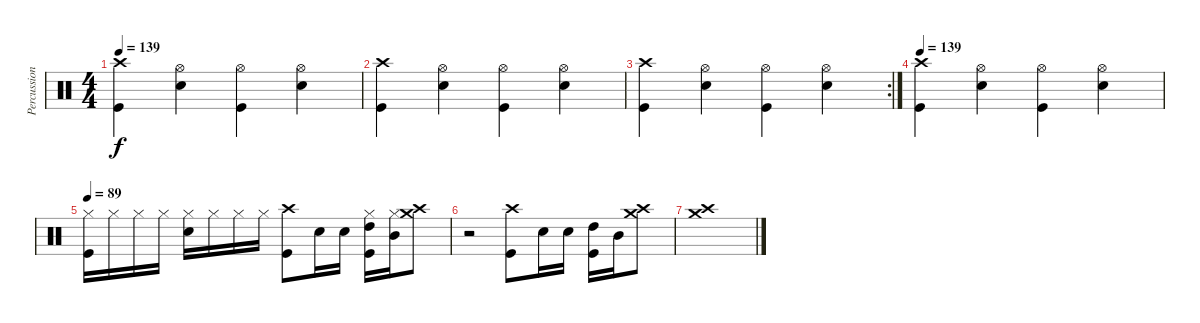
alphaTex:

\track ("Percussion" "Percussion") {instrument percussion}
\staff {score}
\articulation defaults
\ts (4 4)
\tempo 139
\clef neutral
\ks c
("Crash high (hit)" "Kick (hit)").4{dy f volume 15} ("Hi-Hat (open)" "Snare (hit) 2").4 ("Hi-Hat (open)" "Kick (hit)").4 ("Hi-Hat (open)" "Snare (hit) 2").4 |
("Crash high (hit)" "Kick (hit)").4{volume 15} ("Hi-Hat (open)" "Snare (hit) 2").4 ("Hi-Hat (open)" "Kick (hit)").4 ("Hi-Hat (open)" "Snare (hit) 2").4 |
\rc 2
("Crash high (hit)" "Kick (hit)").4{volume 15} ("Hi-Hat (open)" "Snare (hit) 2").4 ("Hi-Hat (open)" "Kick (hit)").4 ("Hi-Hat (open)" "Snare (hit) 2").4 |
\tempo 139
("Crash high (hit)" "Kick (hit)").4{volume 15} ("Hi-Hat (open)" "Snare (hit) 2").4 ("Hi-Hat (open)" "Kick (hit)").4 ("Hi-Hat (open)" "Snare (hit) 2").4 |
\tempo 89
("Hi-Hat (closed)" "Kick (hit)").16 "Hi-Hat (closed)".16 "Hi-Hat (closed)".16 "Hi-Hat (closed)".16 ("Hi-Hat (closed)" "Snare (hit) 2").16 "Hi-Hat (closed)".16 "Hi-Hat (closed)".16 "Hi-Hat (closed)".16 ("Crash high (hit)" "Kick (hit)").8 "Snare (hit) 2".16 "Snare (hit) 2".16 ("Hi-Hat (closed)" "High Tom (hit)" "Kick (hit)").16 ("Hi-Hat (closed)" "Mid Tom (hit)").16 ("Crash high (hit)" "Crash medium (hit)").8 |
r.2 ("Crash high (hit)" "Kick (hit)").8 "Snare (hit) 2".16 "Snare (hit) 2".16 ("High Tom (hit)" "Kick (hit)").16 "Mid Tom (hit)".16 ("Crash high (hit)" "Crash medium (hit)").8 |
("Crash high (hit)" "Crash medium (hit)").1
